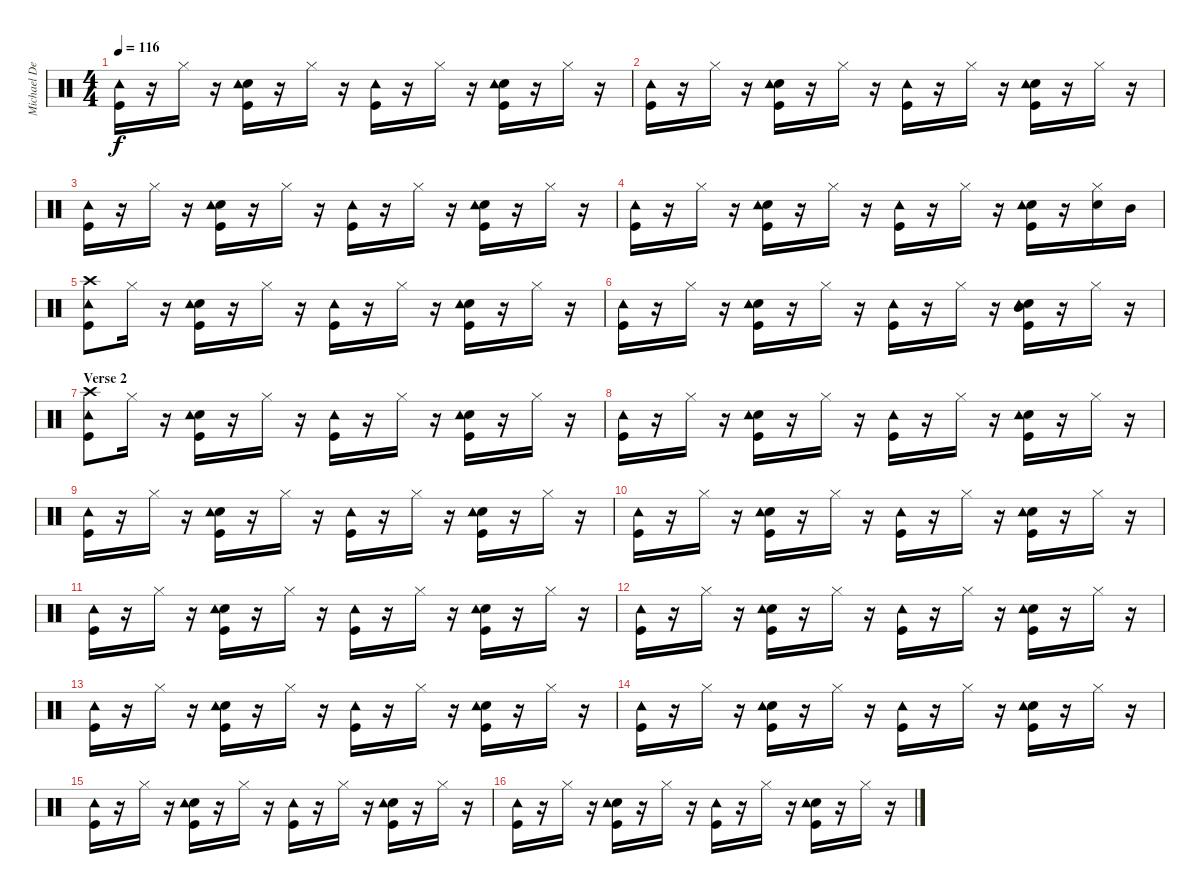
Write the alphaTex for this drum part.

\track ("Michael DeRosier" "Michael De") {instrument percussion}
\staff {score}
\articulation defaults
\ts (4 4)
\tempo 116
\clef neutral
\ks c
("Kick (hit)" "Tambourine (hit)").16{dy f} r.16 "Hi-Hat (closed)".16 r.16 ("Kick (hit)" "Electric Snare (hit)" "Tambourine (hit)").16 r.16 "Hi-Hat (closed)".16 r.16 ("Kick (hit)" "Tambourine (hit)").16 r.16 "Hi-Hat (closed)".16 r.16 ("Kick (hit)" "Electric Snare (hit)" "Tambourine (hit)").16 r.16 "Hi-Hat (closed)".16 r.16 |
("Kick (hit)" "Tambourine (hit)").16 r.16 "Hi-Hat (closed)".16 r.16 ("Kick (hit)" "Electric Snare (hit)" "Tambourine (hit)").16 r.16 "Hi-Hat (closed)".16 r.16 ("Kick (hit)" "Tambourine (hit)").16 r.16 "Hi-Hat (closed)".16 r.16 ("Kick (hit)" "Electric Snare (hit)" "Tambourine (hit)").16 r.16 "Hi-Hat (closed)".16 r.16 |
("Kick (hit)" "Tambourine (hit)").16 r.16 "Hi-Hat (closed)".16 r.16 ("Kick (hit)" "Electric Snare (hit)" "Tambourine (hit)").16 r.16 "Hi-Hat (closed)".16 r.16 ("Kick (hit)" "Tambourine (hit)").16 r.16 "Hi-Hat (closed)".16 r.16 ("Kick (hit)" "Electric Snare (hit)" "Tambourine (hit)").16 r.16 "Hi-Hat (closed)".16 r.16 |
("Kick (hit)" "Tambourine (hit)").16 r.16 "Hi-Hat (closed)".16 r.16 ("Kick (hit)" "Electric Snare (hit)" "Tambourine (hit)").16 r.16 "Hi-Hat (closed)".16 r.16 ("Kick (hit)" "Tambourine (hit)").16 r.16 "Hi-Hat (closed)".16 r.16 ("Kick (hit)" "Electric Snare (hit)" "Tambourine (hit)").16 r.16 ("Electric Snare (hit)" "Hi-Hat (closed)").16 "Mid Tom (hit)".16 |
("Kick (hit)" "Crash high (hit)" "Tambourine (hit)").8 "Hi-Hat (closed)".16 r.16 ("Kick (hit)" "Electric Snare (hit)" "Tambourine (hit)").16 r.16 "Hi-Hat (closed)".16 r.16 ("Kick (hit)" "Tambourine (hit)").16 r.16 "Hi-Hat (closed)".16 r.16 ("Kick (hit)" "Electric Snare (hit)" "Tambourine (hit)").16 r.16 "Hi-Hat (closed)".16 r.16 |
("Kick (hit)" "Tambourine (hit)").16 r.16 "Hi-Hat (closed)".16 r.16 ("Kick (hit)" "Electric Snare (hit)" "Tambourine (hit)").16 r.16 "Hi-Hat (closed)".16 r.16 ("Kick (hit)" "Tambourine (hit)").16 r.16 "Hi-Hat (closed)".16 r.16 ("Kick (hit)" "Electric Snare (hit)" "Mid Tom (hit)" "Tambourine (hit)").16 r.16 "Hi-Hat (closed)".16 r.16 |
\section ("" "Verse 2")
("Kick (hit)" "Crash high (hit)" "Tambourine (hit)").8 "Hi-Hat (closed)".16 r.16 ("Kick (hit)" "Electric Snare (hit)" "Tambourine (hit)").16 r.16 "Hi-Hat (closed)".16 r.16 ("Kick (hit)" "Tambourine (hit)").16 r.16 "Hi-Hat (closed)".16 r.16 ("Kick (hit)" "Electric Snare (hit)" "Tambourine (hit)").16 r.16 "Hi-Hat (closed)".16 r.16 |
("Kick (hit)" "Tambourine (hit)").16 r.16 "Hi-Hat (closed)".16 r.16 ("Kick (hit)" "Electric Snare (hit)" "Tambourine (hit)").16 r.16 "Hi-Hat (closed)".16 r.16 ("Kick (hit)" "Tambourine (hit)").16 r.16 "Hi-Hat (closed)".16 r.16 ("Kick (hit)" "Electric Snare (hit)" "Tambourine (hit)").16 r.16 "Hi-Hat (closed)".16 r.16 |
("Kick (hit)" "Tambourine (hit)").16 r.16 "Hi-Hat (closed)".16 r.16 ("Kick (hit)" "Electric Snare (hit)" "Tambourine (hit)").16 r.16 "Hi-Hat (closed)".16 r.16 ("Kick (hit)" "Tambourine (hit)").16 r.16 "Hi-Hat (closed)".16 r.16 ("Kick (hit)" "Electric Snare (hit)" "Tambourine (hit)").16 r.16 "Hi-Hat (closed)".16 r.16 |
("Kick (hit)" "Tambourine (hit)").16 r.16 "Hi-Hat (closed)".16 r.16 ("Kick (hit)" "Electric Snare (hit)" "Tambourine (hit)").16 r.16 "Hi-Hat (closed)".16 r.16 ("Kick (hit)" "Tambourine (hit)").16 r.16 "Hi-Hat (closed)".16 r.16 ("Kick (hit)" "Electric Snare (hit)" "Tambourine (hit)").16 r.16 "Hi-Hat (closed)".16 r.16 |
("Kick (hit)" "Tambourine (hit)").16 r.16 "Hi-Hat (closed)".16 r.16 ("Kick (hit)" "Electric Snare (hit)" "Tambourine (hit)").16 r.16 "Hi-Hat (closed)".16 r.16 ("Kick (hit)" "Tambourine (hit)").16 r.16 "Hi-Hat (closed)".16 r.16 ("Kick (hit)" "Electric Snare (hit)" "Tambourine (hit)").16 r.16 "Hi-Hat (closed)".16 r.16 |
("Kick (hit)" "Tambourine (hit)").16 r.16 "Hi-Hat (closed)".16 r.16 ("Kick (hit)" "Electric Snare (hit)" "Tambourine (hit)").16 r.16 "Hi-Hat (closed)".16 r.16 ("Kick (hit)" "Tambourine (hit)").16 r.16 "Hi-Hat (closed)".16 r.16 ("Kick (hit)" "Electric Snare (hit)" "Tambourine (hit)").16 r.16 "Hi-Hat (closed)".16 r.16 |
("Kick (hit)" "Tambourine (hit)").16 r.16 "Hi-Hat (closed)".16 r.16 ("Kick (hit)" "Electric Snare (hit)" "Tambourine (hit)").16 r.16 "Hi-Hat (closed)".16 r.16 ("Kick (hit)" "Tambourine (hit)").16 r.16 "Hi-Hat (closed)".16 r.16 ("Kick (hit)" "Electric Snare (hit)" "Tambourine (hit)").16 r.16 "Hi-Hat (closed)".16 r.16 |
("Kick (hit)" "Tambourine (hit)").16 r.16 "Hi-Hat (closed)".16 r.16 ("Kick (hit)" "Electric Snare (hit)" "Tambourine (hit)").16 r.16 "Hi-Hat (closed)".16 r.16 ("Kick (hit)" "Tambourine (hit)").16 r.16 "Hi-Hat (closed)".16 r.16 ("Kick (hit)" "Electric Snare (hit)" "Tambourine (hit)").16 r.16 "Hi-Hat (closed)".16 r.16 |
("Kick (hit)" "Tambourine (hit)").16 r.16 "Hi-Hat (closed)".16 r.16 ("Kick (hit)" "Electric Snare (hit)" "Tambourine (hit)").16 r.16 "Hi-Hat (closed)".16 r.16 ("Kick (hit)" "Tambourine (hit)").16 r.16 "Hi-Hat (closed)".16 r.16 ("Kick (hit)" "Electric Snare (hit)" "Tambourine (hit)").16 r.16 "Hi-Hat (closed)".16 r.16 |
("Kick (hit)" "Tambourine (hit)").16 r.16 "Hi-Hat (closed)".16 r.16 ("Kick (hit)" "Electric Snare (hit)" "Tambourine (hit)").16 r.16 "Hi-Hat (closed)".16 r.16 ("Kick (hit)" "Tambourine (hit)").16 r.16 "Hi-Hat (closed)".16 r.16 ("Kick (hit)" "Electric Snare (hit)" "Tambourine (hit)").16 r.16 "Hi-Hat (closed)".16 r.16
